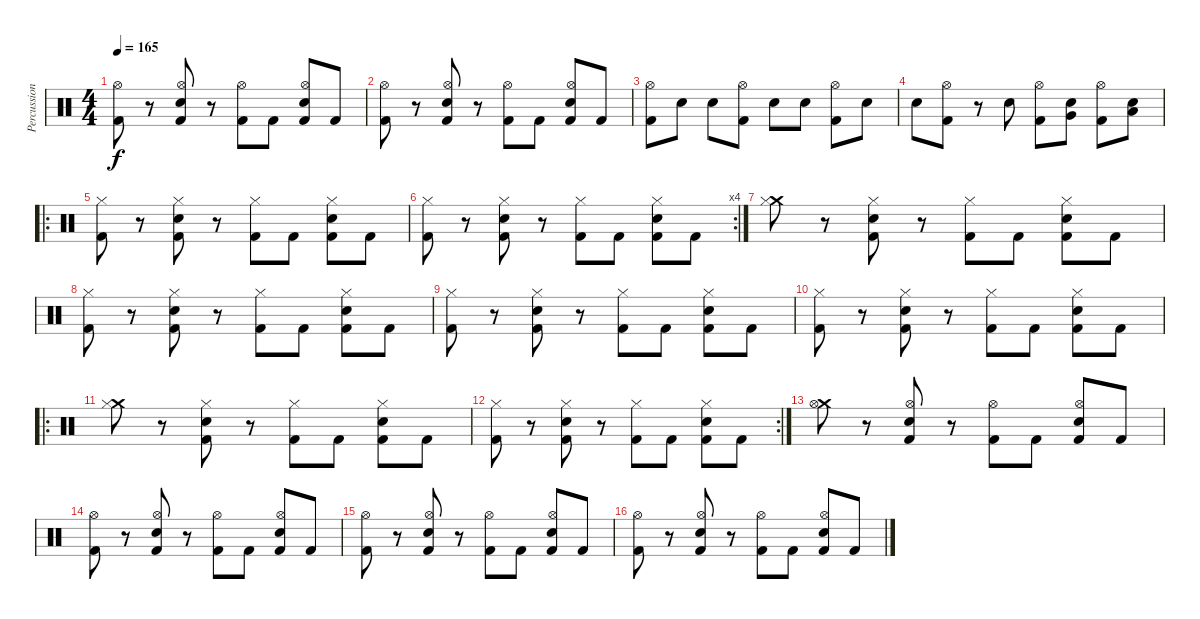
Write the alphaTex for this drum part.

\track ("Percussion" "Percussion") {instrument percussion}
\staff {score}
\articulation defaults
\ts (4 4)
\tempo 165
\clef neutral
\ks c
("Kick (hit) 2" "Hi-Hat (open)").8{dy f} r.8 ("Kick (hit) 2" "Electric Snare (hit)" "Hi-Hat (open)").8 r.8 ("Kick (hit) 2" "Hi-Hat (open)").8 "Kick (hit) 2".8 ("Kick (hit) 2" "Electric Snare (hit)" "Hi-Hat (open)").8 "Kick (hit) 2".8 |
("Kick (hit) 2" "Hi-Hat (open)").8 r.8 ("Kick (hit) 2" "Electric Snare (hit)" "Hi-Hat (open)").8 r.8 ("Kick (hit) 2" "Hi-Hat (open)").8 "Kick (hit) 2".8 ("Kick (hit) 2" "Electric Snare (hit)" "Hi-Hat (open)").8 "Kick (hit) 2".8 |
("Hi-Hat (open)" "Kick (hit) 2").8 "Snare (hit)".8 "Electric Snare (hit)".8 ("Hi-Hat (open)" "Kick (hit) 2").8 "Snare (hit)".8 "Electric Snare (hit)".8 ("Hi-Hat (open)" "Kick (hit) 2").8 "Snare (hit)".8 |
"Electric Snare (hit)".8 ("Hi-Hat (open)" "Kick (hit) 2").8 r.8 "Electric Snare (hit)".8 ("Hi-Hat (open)" "Kick (hit) 2").8 ("Electric Snare (hit)" "Very Low Tom (hit)").8 ("Hi-Hat (open)" "Kick (hit) 2").8 ("Electric Snare (hit)" "Low Floor Tom (hit)").8 |
\ro
("Kick (hit) 2" "Hi-Hat (closed)").8 r.8 ("Kick (hit) 2" "Electric Snare (hit)" "Hi-Hat (closed)").8 r.8 ("Kick (hit) 2" "Hi-Hat (closed)").8 "Kick (hit) 2".8 ("Kick (hit) 2" "Electric Snare (hit)" "Hi-Hat (closed)").8 "Kick (hit) 2".8 |
\rc 4
("Kick (hit) 2" "Hi-Hat (closed)").8 r.8 ("Kick (hit) 2" "Electric Snare (hit)" "Hi-Hat (closed)").8 r.8 ("Kick (hit) 2" "Hi-Hat (closed)").8 "Kick (hit) 2".8 ("Kick (hit) 2" "Electric Snare (hit)" "Hi-Hat (closed)").8 "Kick (hit) 2".8 |
("Crash medium (hit)" "Hi-Hat (closed)").8 r.8 ("Kick (hit) 2" "Electric Snare (hit)" "Hi-Hat (closed)").8 r.8 ("Kick (hit) 2" "Hi-Hat (closed)").8 "Kick (hit) 2".8 ("Kick (hit) 2" "Electric Snare (hit)" "Hi-Hat (closed)").8 "Kick (hit) 2".8 |
("Kick (hit) 2" "Hi-Hat (closed)").8 r.8 ("Kick (hit) 2" "Electric Snare (hit)" "Hi-Hat (closed)").8 r.8 ("Kick (hit) 2" "Hi-Hat (closed)").8 "Kick (hit) 2".8 ("Kick (hit) 2" "Electric Snare (hit)" "Hi-Hat (closed)").8 "Kick (hit) 2".8 |
("Kick (hit) 2" "Hi-Hat (closed)").8 r.8 ("Kick (hit) 2" "Electric Snare (hit)" "Hi-Hat (closed)").8 r.8 ("Kick (hit) 2" "Hi-Hat (closed)").8 "Kick (hit) 2".8 ("Kick (hit) 2" "Electric Snare (hit)" "Hi-Hat (closed)").8 "Kick (hit) 2".8 |
("Kick (hit) 2" "Hi-Hat (closed)").8 r.8 ("Kick (hit) 2" "Electric Snare (hit)" "Hi-Hat (closed)").8 r.8 ("Kick (hit) 2" "Hi-Hat (closed)").8 "Kick (hit) 2".8 ("Kick (hit) 2" "Electric Snare (hit)" "Hi-Hat (closed)").8 "Kick (hit) 2".8 |
\ro
("Crash medium (hit)" "Hi-Hat (closed)").8 r.8 ("Kick (hit) 2" "Electric Snare (hit)" "Hi-Hat (closed)").8 r.8 ("Kick (hit) 2" "Hi-Hat (closed)").8 "Kick (hit) 2".8 ("Kick (hit) 2" "Electric Snare (hit)" "Hi-Hat (closed)").8 "Kick (hit) 2".8 |
\rc 2
("Kick (hit) 2" "Hi-Hat (closed)").8 r.8 ("Kick (hit) 2" "Electric Snare (hit)" "Hi-Hat (closed)").8 r.8 ("Kick (hit) 2" "Hi-Hat (closed)").8 "Kick (hit) 2".8 ("Kick (hit) 2" "Electric Snare (hit)" "Hi-Hat (closed)").8 "Kick (hit) 2".8 |
("Crash medium (hit)" "Hi-Hat (open)").8 r.8 ("Kick (hit) 2" "Electric Snare (hit)" "Hi-Hat (open)").8 r.8 ("Kick (hit) 2" "Hi-Hat (open)").8 "Kick (hit) 2".8 ("Kick (hit) 2" "Electric Snare (hit)" "Hi-Hat (open)").8 "Kick (hit) 2".8 |
("Kick (hit) 2" "Hi-Hat (open)").8 r.8 ("Kick (hit) 2" "Electric Snare (hit)" "Hi-Hat (open)").8 r.8 ("Kick (hit) 2" "Hi-Hat (open)").8 "Kick (hit) 2".8 ("Kick (hit) 2" "Electric Snare (hit)" "Hi-Hat (open)").8 "Kick (hit) 2".8 |
("Kick (hit) 2" "Hi-Hat (open)").8 r.8 ("Kick (hit) 2" "Electric Snare (hit)" "Hi-Hat (open)").8 r.8 ("Kick (hit) 2" "Hi-Hat (open)").8 "Kick (hit) 2".8 ("Kick (hit) 2" "Electric Snare (hit)" "Hi-Hat (open)").8 "Kick (hit) 2".8 |
("Kick (hit) 2" "Hi-Hat (open)").8 r.8 ("Kick (hit) 2" "Electric Snare (hit)" "Hi-Hat (open)").8 r.8 ("Kick (hit) 2" "Hi-Hat (open)").8 "Kick (hit) 2".8 ("Kick (hit) 2" "Electric Snare (hit)" "Hi-Hat (open)").8 "Kick (hit) 2".8
